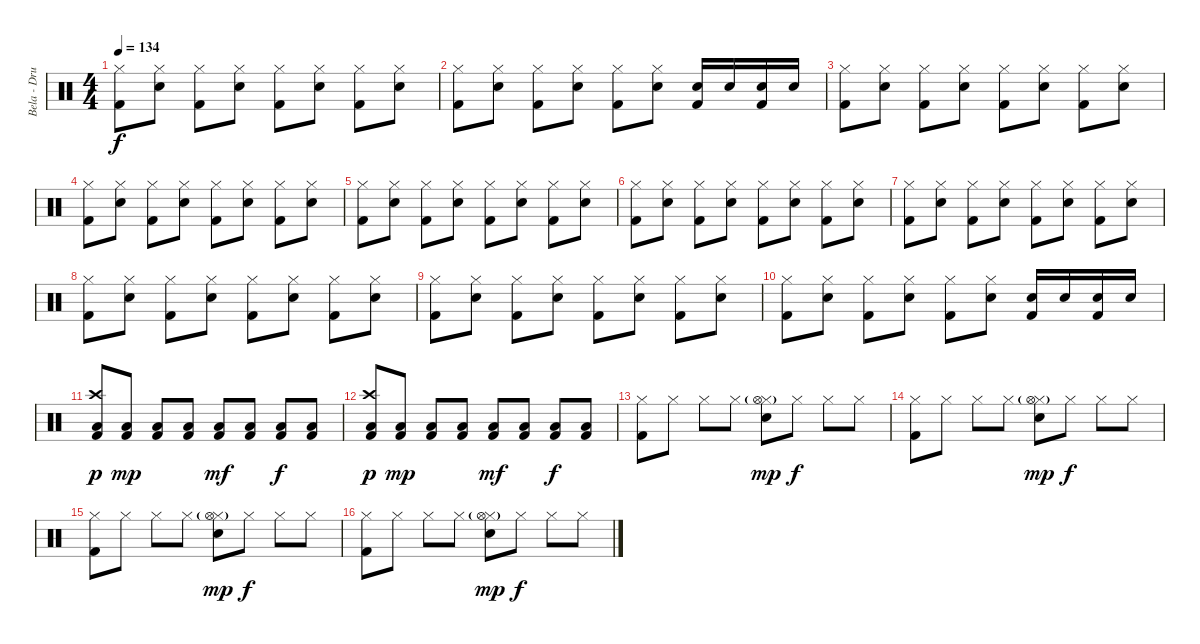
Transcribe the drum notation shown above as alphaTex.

\track ("Bela - Drums" "Bela - Dru") {instrument percussion}
\staff {score}
\articulation defaults
\ts (4 4)
\tempo 134
\clef neutral
\ks c
("Hi-Hat (closed)" "Kick (hit) 2").8{dy f} ("Hi-Hat (closed)" "Electric Snare (hit)").8 ("Hi-Hat (closed)" "Kick (hit) 2").8 ("Hi-Hat (closed)" "Electric Snare (hit)").8 ("Hi-Hat (closed)" "Kick (hit) 2").8 ("Hi-Hat (closed)" "Electric Snare (hit)").8 ("Hi-Hat (closed)" "Kick (hit) 2").8 ("Hi-Hat (closed)" "Electric Snare (hit)").8 |
("Hi-Hat (closed)" "Kick (hit) 2").8 ("Hi-Hat (closed)" "Electric Snare (hit)").8 ("Hi-Hat (closed)" "Kick (hit) 2").8 ("Hi-Hat (closed)" "Electric Snare (hit)").8 ("Hi-Hat (closed)" "Kick (hit) 2").8 ("Hi-Hat (closed)" "Electric Snare (hit)").8 ("Electric Snare (hit)" "Kick (hit) 2").16 "Electric Snare (hit)".16 ("Electric Snare (hit)" "Kick (hit) 2").16 "Electric Snare (hit)".16 |
("Hi-Hat (closed)" "Kick (hit) 2").8 ("Hi-Hat (closed)" "Electric Snare (hit)").8 ("Hi-Hat (closed)" "Kick (hit) 2").8 ("Hi-Hat (closed)" "Electric Snare (hit)").8 ("Hi-Hat (closed)" "Kick (hit) 2").8 ("Hi-Hat (closed)" "Electric Snare (hit)").8 ("Hi-Hat (closed)" "Kick (hit) 2").8 ("Hi-Hat (closed)" "Electric Snare (hit)").8 |
("Hi-Hat (closed)" "Kick (hit) 2").8 ("Hi-Hat (closed)" "Electric Snare (hit)").8 ("Hi-Hat (closed)" "Kick (hit) 2").8 ("Hi-Hat (closed)" "Electric Snare (hit)").8 ("Hi-Hat (closed)" "Kick (hit) 2").8 ("Hi-Hat (closed)" "Electric Snare (hit)").8 ("Hi-Hat (closed)" "Kick (hit) 2").8 ("Hi-Hat (closed)" "Electric Snare (hit)").8 |
("Hi-Hat (closed)" "Kick (hit) 2").8 ("Hi-Hat (closed)" "Electric Snare (hit)").8 ("Hi-Hat (closed)" "Kick (hit) 2").8 ("Hi-Hat (closed)" "Electric Snare (hit)").8 ("Hi-Hat (closed)" "Kick (hit) 2").8 ("Hi-Hat (closed)" "Electric Snare (hit)").8 ("Hi-Hat (closed)" "Kick (hit) 2").8 ("Hi-Hat (closed)" "Electric Snare (hit)").8 |
("Hi-Hat (closed)" "Kick (hit) 2").8 ("Hi-Hat (closed)" "Electric Snare (hit)").8 ("Hi-Hat (closed)" "Kick (hit) 2").8 ("Hi-Hat (closed)" "Electric Snare (hit)").8 ("Hi-Hat (closed)" "Kick (hit) 2").8 ("Hi-Hat (closed)" "Electric Snare (hit)").8 ("Hi-Hat (closed)" "Kick (hit) 2").8 ("Hi-Hat (closed)" "Electric Snare (hit)").8 |
("Hi-Hat (closed)" "Kick (hit) 2").8 ("Hi-Hat (closed)" "Electric Snare (hit)").8 ("Hi-Hat (closed)" "Kick (hit) 2").8 ("Hi-Hat (closed)" "Electric Snare (hit)").8 ("Hi-Hat (closed)" "Kick (hit) 2").8 ("Hi-Hat (closed)" "Electric Snare (hit)").8 ("Hi-Hat (closed)" "Kick (hit) 2").8 ("Hi-Hat (closed)" "Electric Snare (hit)").8 |
("Hi-Hat (closed)" "Kick (hit) 2").8 ("Hi-Hat (closed)" "Electric Snare (hit)").8 ("Hi-Hat (closed)" "Kick (hit) 2").8 ("Hi-Hat (closed)" "Electric Snare (hit)").8 ("Hi-Hat (closed)" "Kick (hit) 2").8 ("Hi-Hat (closed)" "Electric Snare (hit)").8 ("Hi-Hat (closed)" "Kick (hit) 2").8 ("Hi-Hat (closed)" "Electric Snare (hit)").8 |
("Hi-Hat (closed)" "Kick (hit) 2").8 ("Hi-Hat (closed)" "Electric Snare (hit)").8 ("Hi-Hat (closed)" "Kick (hit) 2").8 ("Hi-Hat (closed)" "Electric Snare (hit)").8 ("Hi-Hat (closed)" "Kick (hit) 2").8 ("Hi-Hat (closed)" "Electric Snare (hit)").8 ("Hi-Hat (closed)" "Kick (hit) 2").8 ("Hi-Hat (closed)" "Electric Snare (hit)").8 |
("Hi-Hat (closed)" "Kick (hit) 2").8 ("Hi-Hat (closed)" "Electric Snare (hit)").8 ("Hi-Hat (closed)" "Kick (hit) 2").8 ("Hi-Hat (closed)" "Electric Snare (hit)").8 ("Hi-Hat (closed)" "Kick (hit) 2").8 ("Hi-Hat (closed)" "Electric Snare (hit)").8 ("Electric Snare (hit)" "Kick (hit) 2").16 "Electric Snare (hit)".16 ("Electric Snare (hit)" "Kick (hit) 2").16 "Electric Snare (hit)".16 |
("Crash high (hit)" "Low Floor Tom (hit)" "Kick (hit) 2").8{dy p} ("Low Floor Tom (hit)" "Kick (hit) 2").8{dy mp} ("Low Floor Tom (hit)" "Kick (hit) 2").8 ("Low Floor Tom (hit)" "Kick (hit) 2").8 ("Low Floor Tom (hit)" "Kick (hit) 2").8{dy mf} ("Low Floor Tom (hit)" "Kick (hit) 2").8 ("Low Floor Tom (hit)" "Kick (hit) 2").8{dy f} ("Low Floor Tom (hit)" "Kick (hit) 2").8 |
("Crash high (hit)" "Low Floor Tom (hit)" "Kick (hit) 2").8{dy p} ("Low Floor Tom (hit)" "Kick (hit) 2").8{dy mp} ("Low Floor Tom (hit)" "Kick (hit) 2").8 ("Low Floor Tom (hit)" "Kick (hit) 2").8 ("Low Floor Tom (hit)" "Kick (hit) 2").8{dy mf} ("Low Floor Tom (hit)" "Kick (hit) 2").8 ("Low Floor Tom (hit)" "Kick (hit) 2").8{dy f} ("Low Floor Tom (hit)" "Kick (hit) 2").8 |
("Hi-Hat (closed)" "Kick (hit) 2").8 "Hi-Hat (closed)".8 "Hi-Hat (closed)".8 "Hi-Hat (closed)".8 ("Hi-Hat (closed)" "Hi-Hat (open)"{g} "Electric Snare (hit)").8{dy mp} "Hi-Hat (closed)".8{dy f} "Hi-Hat (closed)".8 "Hi-Hat (closed)".8 |
("Hi-Hat (closed)" "Kick (hit) 2").8 "Hi-Hat (closed)".8 "Hi-Hat (closed)".8 "Hi-Hat (closed)".8 ("Hi-Hat (closed)" "Hi-Hat (open)"{g} "Electric Snare (hit)").8{dy mp} "Hi-Hat (closed)".8{dy f} "Hi-Hat (closed)".8 "Hi-Hat (closed)".8 |
("Hi-Hat (closed)" "Kick (hit) 2").8 "Hi-Hat (closed)".8 "Hi-Hat (closed)".8 "Hi-Hat (closed)".8 ("Hi-Hat (closed)" "Hi-Hat (open)"{g} "Electric Snare (hit)").8{dy mp} "Hi-Hat (closed)".8{dy f} "Hi-Hat (closed)".8 "Hi-Hat (closed)".8 |
("Hi-Hat (closed)" "Kick (hit) 2").8 "Hi-Hat (closed)".8 "Hi-Hat (closed)".8 "Hi-Hat (closed)".8 ("Hi-Hat (closed)" "Hi-Hat (open)"{g} "Electric Snare (hit)").8{dy mp} "Hi-Hat (closed)".8{dy f} "Hi-Hat (closed)".8 "Hi-Hat (closed)".8
